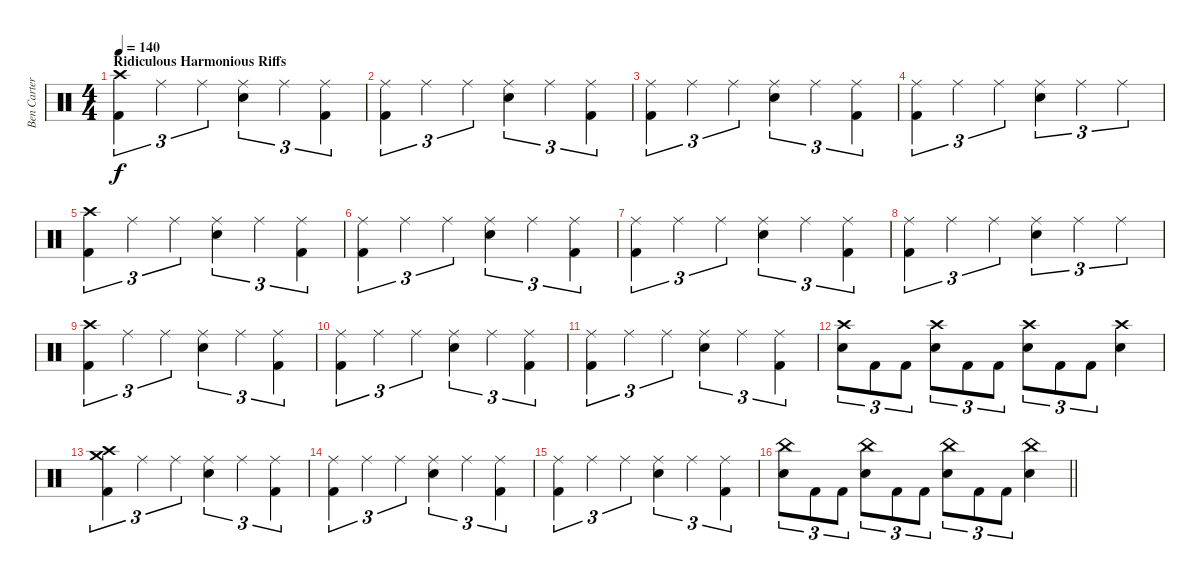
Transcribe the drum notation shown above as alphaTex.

\track ("Ben Carter" "Ben Carter") {instrument percussion}
\staff {score}
\articulation defaults
\ts (4 4)
\section ("" "Ridiculous Harmonious Riffs")
\tempo 140
\clef neutral
\ks c
("Crash high (hit)" "Kick (hit) 2").4{tu (3 2) dy f} "Ride (middle)".4{tu (3 2)} "Ride (middle)".4{tu (3 2)} ("Ride (middle)" "Snare (hit) 2").4{tu (3 2)} "Ride (middle)".4{tu (3 2)} ("Ride (middle)" "Kick (hit) 2").4{tu (3 2)} |
("Ride (middle)" "Kick (hit) 2").4{tu (3 2)} "Ride (middle)".4{tu (3 2)} "Ride (middle)".4{tu (3 2)} ("Ride (middle)" "Snare (hit) 2").4{tu (3 2)} "Ride (middle)".4{tu (3 2)} ("Ride (middle)" "Kick (hit) 2").4{tu (3 2)} |
("Ride (middle)" "Kick (hit) 2").4{tu (3 2)} "Ride (middle)".4{tu (3 2)} "Ride (middle)".4{tu (3 2)} ("Ride (middle)" "Snare (hit) 2").4{tu (3 2)} "Ride (middle)".4{tu (3 2)} ("Ride (middle)" "Kick (hit) 2").4{tu (3 2)} |
("Ride (middle)" "Kick (hit) 2").4{tu (3 2)} "Ride (middle)".4{tu (3 2)} "Ride (middle)".4{tu (3 2)} ("Ride (middle)" "Snare (hit) 2").4{tu (3 2)} "Ride (middle)".4{tu (3 2)} "Ride (middle)".4{tu (3 2)} |
("Crash high (hit)" "Kick (hit) 2").4{tu (3 2)} "Ride (middle)".4{tu (3 2)} "Ride (middle)".4{tu (3 2)} ("Ride (middle)" "Snare (hit) 2").4{tu (3 2)} "Ride (middle)".4{tu (3 2)} ("Ride (middle)" "Kick (hit) 2").4{tu (3 2)} |
("Ride (middle)" "Kick (hit) 2").4{tu (3 2)} "Ride (middle)".4{tu (3 2)} "Ride (middle)".4{tu (3 2)} ("Ride (middle)" "Snare (hit) 2").4{tu (3 2)} "Ride (middle)".4{tu (3 2)} ("Ride (middle)" "Kick (hit) 2").4{tu (3 2)} |
("Ride (middle)" "Kick (hit) 2").4{tu (3 2)} "Ride (middle)".4{tu (3 2)} "Ride (middle)".4{tu (3 2)} ("Ride (middle)" "Snare (hit) 2").4{tu (3 2)} "Ride (middle)".4{tu (3 2)} ("Ride (middle)" "Kick (hit) 2").4{tu (3 2)} |
("Ride (middle)" "Kick (hit) 2").4{tu (3 2)} "Ride (middle)".4{tu (3 2)} "Ride (middle)".4{tu (3 2)} ("Ride (middle)" "Snare (hit) 2").4{tu (3 2)} "Ride (middle)".4{tu (3 2)} "Ride (middle)".4{tu (3 2)} |
("Crash high (hit)" "Kick (hit) 2").4{tu (3 2)} "Ride (middle)".4{tu (3 2)} "Ride (middle)".4{tu (3 2)} ("Ride (middle)" "Snare (hit) 2").4{tu (3 2)} "Ride (middle)".4{tu (3 2)} ("Ride (middle)" "Kick (hit) 2").4{tu (3 2)} |
("Ride (middle)" "Kick (hit) 2").4{tu (3 2)} "Ride (middle)".4{tu (3 2)} "Ride (middle)".4{tu (3 2)} ("Ride (middle)" "Snare (hit) 2").4{tu (3 2)} "Ride (middle)".4{tu (3 2)} ("Ride (middle)" "Kick (hit) 2").4{tu (3 2)} |
("Ride (middle)" "Kick (hit) 2").4{tu (3 2)} "Ride (middle)".4{tu (3 2)} "Ride (middle)".4{tu (3 2)} ("Ride (middle)" "Snare (hit) 2").4{tu (3 2)} "Ride (middle)".4{tu (3 2)} ("Ride (middle)" "Kick (hit) 2").4{tu (3 2)} |
("Crash high (hit)" "Snare (hit) 2").8{tu (3 2)} "Kick (hit) 2".8{tu (3 2)} "Kick (hit) 2".8{tu (3 2)} ("Crash high (hit)" "Snare (hit) 2").8{tu (3 2)} "Kick (hit) 2".8{tu (3 2)} "Kick (hit) 2".8{tu (3 2)} ("Crash high (hit)" "Snare (hit) 2").8{tu (3 2)} "Kick (hit) 2".8{tu (3 2)} "Kick (hit) 2".8{tu (3 2)} ("Crash high (hit)" "Snare (hit) 2").4 |
("Crash high (hit)" "Crash medium (hit)" "Kick (hit) 2").4{tu (3 2)} "Ride (middle)".4{tu (3 2)} "Ride (middle)".4{tu (3 2)} ("Ride (middle)" "Snare (hit) 2").4{tu (3 2)} "Ride (middle)".4{tu (3 2)} ("Ride (middle)" "Kick (hit) 2").4{tu (3 2)} |
("Ride (middle)" "Kick (hit) 2").4{tu (3 2)} "Ride (middle)".4{tu (3 2)} "Ride (middle)".4{tu (3 2)} ("Ride (middle)" "Snare (hit) 2").4{tu (3 2)} "Ride (middle)".4{tu (3 2)} ("Ride (middle)" "Kick (hit) 2").4{tu (3 2)} |
("Ride (middle)" "Kick (hit) 2").4{tu (3 2)} "Ride (middle)".4{tu (3 2)} "Ride (middle)".4{tu (3 2)} ("Ride (middle)" "Snare (hit) 2").4{tu (3 2)} "Ride (middle)".4{tu (3 2)} ("Ride (middle)" "Kick (hit) 2").4{tu (3 2)} |
\barLineRight lightlight
("China (hit)" "Snare (hit) 2").8{tu (3 2)} "Kick (hit) 2".8{tu (3 2)} "Kick (hit) 2".8{tu (3 2)} ("China (hit)" "Snare (hit) 2").8{tu (3 2)} "Kick (hit) 2".8{tu (3 2)} "Kick (hit) 2".8{tu (3 2)} ("China (hit)" "Snare (hit) 2").8{tu (3 2)} "Kick (hit) 2".8{tu (3 2)} "Kick (hit) 2".8{tu (3 2)} ("China (hit)" "Snare (hit) 2").4
